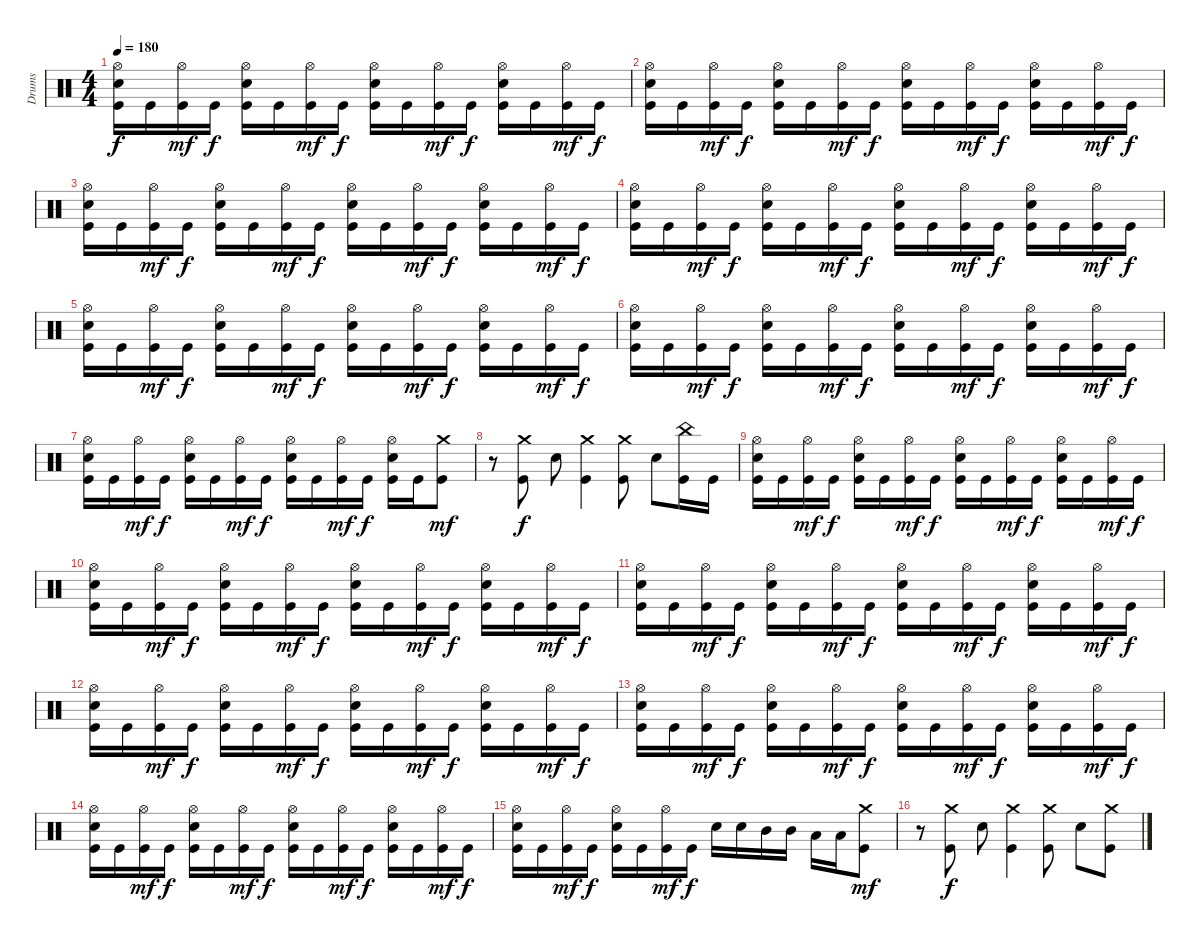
\track ("Drums" "Drums") {instrument percussion}
\staff {score}
\articulation defaults
\ts (4 4)
\tempo 180
\clef neutral
\ks c
("Kick (hit)" "Electric Snare (hit)" "Hi-Hat (open)").16{dy f} "Kick (hit)".16 ("Kick (hit)" "Hi-Hat (open)").16{dy mf} "Kick (hit)".16{dy f} ("Kick (hit)" "Electric Snare (hit)" "Hi-Hat (open)").16 "Kick (hit)".16 ("Kick (hit)" "Hi-Hat (open)").16{dy mf} "Kick (hit)".16{dy f} ("Kick (hit)" "Electric Snare (hit)" "Hi-Hat (open)").16 "Kick (hit)".16 ("Kick (hit)" "Hi-Hat (open)").16{dy mf} "Kick (hit)".16{dy f} ("Kick (hit)" "Electric Snare (hit)" "Hi-Hat (open)").16 "Kick (hit)".16 ("Kick (hit)" "Hi-Hat (open)").16{dy mf} "Kick (hit)".16{dy f} |
("Kick (hit)" "Electric Snare (hit)" "Hi-Hat (open)").16 "Kick (hit)".16 ("Kick (hit)" "Hi-Hat (open)").16{dy mf} "Kick (hit)".16{dy f} ("Kick (hit)" "Electric Snare (hit)" "Hi-Hat (open)").16 "Kick (hit)".16 ("Kick (hit)" "Hi-Hat (open)").16{dy mf} "Kick (hit)".16{dy f} ("Kick (hit)" "Electric Snare (hit)" "Hi-Hat (open)").16 "Kick (hit)".16 ("Kick (hit)" "Hi-Hat (open)").16{dy mf} "Kick (hit)".16{dy f} ("Kick (hit)" "Electric Snare (hit)" "Hi-Hat (open)").16 "Kick (hit)".16 ("Kick (hit)" "Hi-Hat (open)").16{dy mf} "Kick (hit)".16{dy f} |
("Kick (hit)" "Electric Snare (hit)" "Hi-Hat (open)").16 "Kick (hit)".16 ("Kick (hit)" "Hi-Hat (open)").16{dy mf} "Kick (hit)".16{dy f} ("Kick (hit)" "Electric Snare (hit)" "Hi-Hat (open)").16 "Kick (hit)".16 ("Kick (hit)" "Hi-Hat (open)").16{dy mf} "Kick (hit)".16{dy f} ("Kick (hit)" "Electric Snare (hit)" "Hi-Hat (open)").16 "Kick (hit)".16 ("Kick (hit)" "Hi-Hat (open)").16{dy mf} "Kick (hit)".16{dy f} ("Kick (hit)" "Electric Snare (hit)" "Hi-Hat (open)").16 "Kick (hit)".16 ("Kick (hit)" "Hi-Hat (open)").16{dy mf} "Kick (hit)".16{dy f} |
("Kick (hit)" "Electric Snare (hit)" "Hi-Hat (open)").16 "Kick (hit)".16 ("Kick (hit)" "Hi-Hat (open)").16{dy mf} "Kick (hit)".16{dy f} ("Kick (hit)" "Electric Snare (hit)" "Hi-Hat (open)").16 "Kick (hit)".16 ("Kick (hit)" "Hi-Hat (open)").16{dy mf} "Kick (hit)".16{dy f} ("Kick (hit)" "Electric Snare (hit)" "Hi-Hat (open)").16 "Kick (hit)".16 ("Kick (hit)" "Hi-Hat (open)").16{dy mf} "Kick (hit)".16{dy f} ("Kick (hit)" "Electric Snare (hit)" "Hi-Hat (open)").16 "Kick (hit)".16 ("Kick (hit)" "Hi-Hat (open)").16{dy mf} "Kick (hit)".16{dy f} |
("Kick (hit)" "Electric Snare (hit)" "Hi-Hat (open)").16 "Kick (hit)".16 ("Kick (hit)" "Hi-Hat (open)").16{dy mf} "Kick (hit)".16{dy f} ("Kick (hit)" "Electric Snare (hit)" "Hi-Hat (open)").16 "Kick (hit)".16 ("Kick (hit)" "Hi-Hat (open)").16{dy mf} "Kick (hit)".16{dy f} ("Kick (hit)" "Electric Snare (hit)" "Hi-Hat (open)").16 "Kick (hit)".16 ("Kick (hit)" "Hi-Hat (open)").16{dy mf} "Kick (hit)".16{dy f} ("Kick (hit)" "Electric Snare (hit)" "Hi-Hat (open)").16 "Kick (hit)".16 ("Kick (hit)" "Hi-Hat (open)").16{dy mf} "Kick (hit)".16{dy f} |
("Kick (hit)" "Electric Snare (hit)" "Hi-Hat (open)").16 "Kick (hit)".16 ("Kick (hit)" "Hi-Hat (open)").16{dy mf} "Kick (hit)".16{dy f} ("Kick (hit)" "Electric Snare (hit)" "Hi-Hat (open)").16 "Kick (hit)".16 ("Kick (hit)" "Hi-Hat (open)").16{dy mf} "Kick (hit)".16{dy f} ("Kick (hit)" "Electric Snare (hit)" "Hi-Hat (open)").16 "Kick (hit)".16 ("Kick (hit)" "Hi-Hat (open)").16{dy mf} "Kick (hit)".16{dy f} ("Kick (hit)" "Electric Snare (hit)" "Hi-Hat (open)").16 "Kick (hit)".16 ("Kick (hit)" "Hi-Hat (open)").16{dy mf} "Kick (hit)".16{dy f} |
("Kick (hit)" "Electric Snare (hit)" "Hi-Hat (open)").16 "Kick (hit)".16 ("Kick (hit)" "Hi-Hat (open)").16{dy mf} "Kick (hit)".16{dy f} ("Kick (hit)" "Electric Snare (hit)" "Hi-Hat (open)").16 "Kick (hit)".16 ("Kick (hit)" "Hi-Hat (open)").16{dy mf} "Kick (hit)".16{dy f} ("Kick (hit)" "Electric Snare (hit)" "Hi-Hat (open)").16 "Kick (hit)".16 ("Kick (hit)" "Hi-Hat (open)").16{dy mf} "Kick (hit)".16{dy f} ("Kick (hit)" "Electric Snare (hit)" "Hi-Hat (open)").16 "Kick (hit)".16 ("Kick (hit)" "Crash medium (hit)").8{dy mf} |
r.8 ("Kick (hit)" "Crash medium (hit)").8{dy f} "Electric Snare (hit)".8 ("Kick (hit)" "Crash medium (hit)").4 ("Kick (hit)" "Crash medium (hit)").8 "Electric Snare (hit)".8 ("Kick (hit)" "China (hit)").16 "Kick (hit)".16 |
("Kick (hit)" "Electric Snare (hit)" "Hi-Hat (open)").16 "Kick (hit)".16 ("Kick (hit)" "Hi-Hat (open)").16{dy mf} "Kick (hit)".16{dy f} ("Kick (hit)" "Electric Snare (hit)" "Hi-Hat (open)").16 "Kick (hit)".16 ("Kick (hit)" "Hi-Hat (open)").16{dy mf} "Kick (hit)".16{dy f} ("Kick (hit)" "Electric Snare (hit)" "Hi-Hat (open)").16 "Kick (hit)".16 ("Kick (hit)" "Hi-Hat (open)").16{dy mf} "Kick (hit)".16{dy f} ("Kick (hit)" "Electric Snare (hit)" "Hi-Hat (open)").16 "Kick (hit)".16 ("Kick (hit)" "Hi-Hat (open)").16{dy mf} "Kick (hit)".16{dy f} |
("Kick (hit)" "Electric Snare (hit)" "Hi-Hat (open)").16 "Kick (hit)".16 ("Kick (hit)" "Hi-Hat (open)").16{dy mf} "Kick (hit)".16{dy f} ("Kick (hit)" "Electric Snare (hit)" "Hi-Hat (open)").16 "Kick (hit)".16 ("Kick (hit)" "Hi-Hat (open)").16{dy mf} "Kick (hit)".16{dy f} ("Kick (hit)" "Electric Snare (hit)" "Hi-Hat (open)").16 "Kick (hit)".16 ("Kick (hit)" "Hi-Hat (open)").16{dy mf} "Kick (hit)".16{dy f} ("Kick (hit)" "Electric Snare (hit)" "Hi-Hat (open)").16 "Kick (hit)".16 ("Kick (hit)" "Hi-Hat (open)").16{dy mf} "Kick (hit)".16{dy f} |
("Kick (hit)" "Electric Snare (hit)" "Hi-Hat (open)").16 "Kick (hit)".16 ("Kick (hit)" "Hi-Hat (open)").16{dy mf} "Kick (hit)".16{dy f} ("Kick (hit)" "Electric Snare (hit)" "Hi-Hat (open)").16 "Kick (hit)".16 ("Kick (hit)" "Hi-Hat (open)").16{dy mf} "Kick (hit)".16{dy f} ("Kick (hit)" "Electric Snare (hit)" "Hi-Hat (open)").16 "Kick (hit)".16 ("Kick (hit)" "Hi-Hat (open)").16{dy mf} "Kick (hit)".16{dy f} ("Kick (hit)" "Electric Snare (hit)" "Hi-Hat (open)").16 "Kick (hit)".16 ("Kick (hit)" "Hi-Hat (open)").16{dy mf} "Kick (hit)".16{dy f} |
("Kick (hit)" "Electric Snare (hit)" "Hi-Hat (open)").16 "Kick (hit)".16 ("Kick (hit)" "Hi-Hat (open)").16{dy mf} "Kick (hit)".16{dy f} ("Kick (hit)" "Electric Snare (hit)" "Hi-Hat (open)").16 "Kick (hit)".16 ("Kick (hit)" "Hi-Hat (open)").16{dy mf} "Kick (hit)".16{dy f} ("Kick (hit)" "Electric Snare (hit)" "Hi-Hat (open)").16 "Kick (hit)".16 ("Kick (hit)" "Hi-Hat (open)").16{dy mf} "Kick (hit)".16{dy f} ("Kick (hit)" "Electric Snare (hit)" "Hi-Hat (open)").16 "Kick (hit)".16 ("Kick (hit)" "Hi-Hat (open)").16{dy mf} "Kick (hit)".16{dy f} |
("Kick (hit)" "Electric Snare (hit)" "Hi-Hat (open)").16 "Kick (hit)".16 ("Kick (hit)" "Hi-Hat (open)").16{dy mf} "Kick (hit)".16{dy f} ("Kick (hit)" "Electric Snare (hit)" "Hi-Hat (open)").16 "Kick (hit)".16 ("Kick (hit)" "Hi-Hat (open)").16{dy mf} "Kick (hit)".16{dy f} ("Kick (hit)" "Electric Snare (hit)" "Hi-Hat (open)").16 "Kick (hit)".16 ("Kick (hit)" "Hi-Hat (open)").16{dy mf} "Kick (hit)".16{dy f} ("Kick (hit)" "Electric Snare (hit)" "Hi-Hat (open)").16 "Kick (hit)".16 ("Kick (hit)" "Hi-Hat (open)").16{dy mf} "Kick (hit)".16{dy f} |
("Kick (hit)" "Electric Snare (hit)" "Hi-Hat (open)").16 "Kick (hit)".16 ("Kick (hit)" "Hi-Hat (open)").16{dy mf} "Kick (hit)".16{dy f} ("Kick (hit)" "Electric Snare (hit)" "Hi-Hat (open)").16 "Kick (hit)".16 ("Kick (hit)" "Hi-Hat (open)").16{dy mf} "Kick (hit)".16{dy f} ("Kick (hit)" "Electric Snare (hit)" "Hi-Hat (open)").16 "Kick (hit)".16 ("Kick (hit)" "Hi-Hat (open)").16{dy mf} "Kick (hit)".16{dy f} ("Kick (hit)" "Electric Snare (hit)" "Hi-Hat (open)").16 "Kick (hit)".16 ("Kick (hit)" "Hi-Hat (open)").16{dy mf} "Kick (hit)".16{dy f} |
("Kick (hit)" "Electric Snare (hit)" "Hi-Hat (open)").16 "Kick (hit)".16 ("Kick (hit)" "Hi-Hat (open)").16{dy mf} "Kick (hit)".16{dy f} ("Kick (hit)" "Electric Snare (hit)" "Hi-Hat (open)").16 "Kick (hit)".16 ("Kick (hit)" "Hi-Hat (open)").16{dy mf} "Kick (hit)".16{dy f} "Electric Snare (hit)".16 "Electric Snare (hit)".16 "Mid Tom (hit)".16 "Mid Tom (hit)".16 "Low Tom (hit)".16 "Low Tom (hit)".16 ("Kick (hit)" "Crash medium (hit)").8{dy mf} |
r.8 ("Kick (hit)" "Crash medium (hit)").8{dy f} "Electric Snare (hit)".8 ("Kick (hit)" "Crash medium (hit)").4 ("Kick (hit)" "Crash medium (hit)").8 "Electric Snare (hit)".8 ("Kick (hit)" "Crash medium (hit)").8
